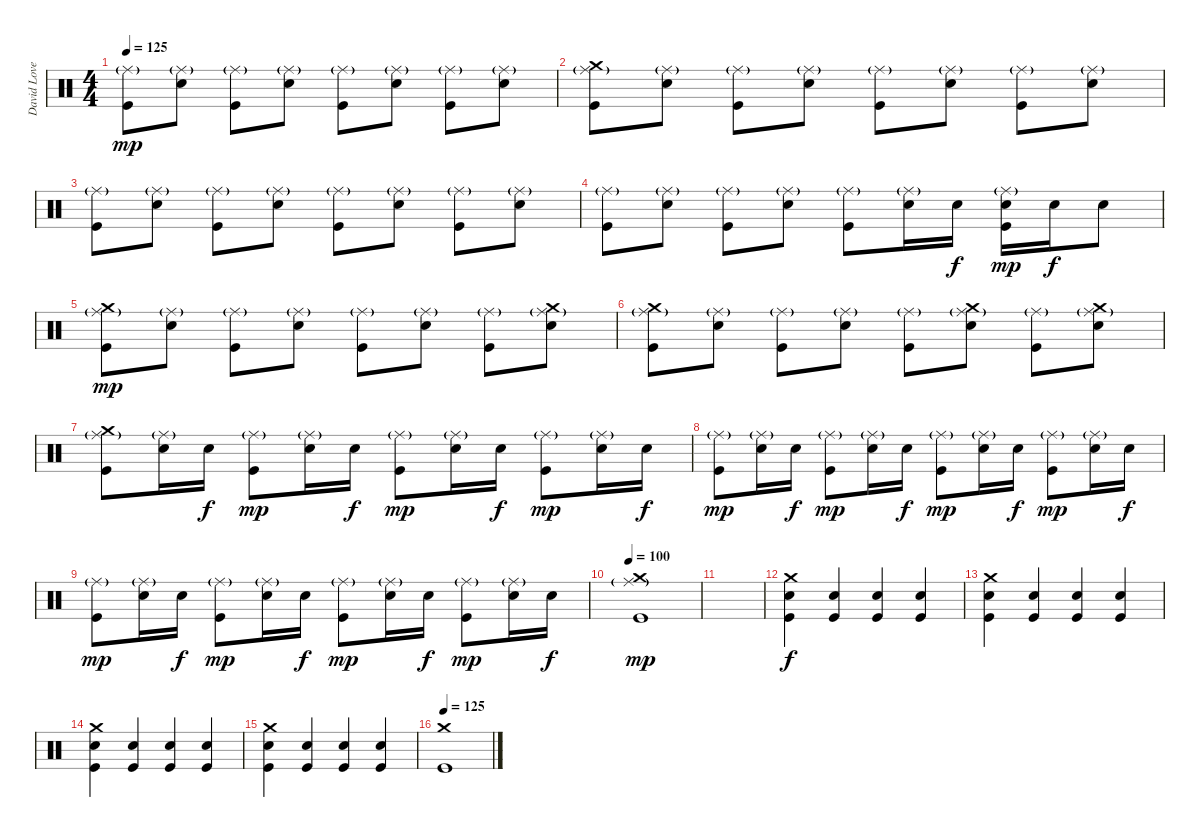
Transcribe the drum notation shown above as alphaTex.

\track ("David Lovering" "David Love") {instrument percussion}
\staff {score}
\articulation defaults
\ts (4 4)
\tempo 125
\clef neutral
\ks c
("Ride (middle)"{g} "Kick (hit)").8{dy mp} ("Ride (middle)"{g} "Snare (hit) 2").8 ("Ride (middle)"{g} "Kick (hit)").8 ("Ride (middle)"{g} "Snare (hit) 2").8 ("Ride (middle)"{g} "Kick (hit)").8 ("Ride (middle)"{g} "Snare (hit) 2").8 ("Ride (middle)"{g} "Kick (hit)").8 ("Ride (middle)"{g} "Snare (hit) 2").8 |
("Ride (middle)"{g} "Crash medium (hit)" "Kick (hit)").8 ("Ride (middle)"{g} "Snare (hit) 2").8 ("Ride (middle)"{g} "Kick (hit)").8 ("Ride (middle)"{g} "Snare (hit) 2").8 ("Ride (middle)"{g} "Kick (hit)").8 ("Ride (middle)"{g} "Snare (hit) 2").8 ("Ride (middle)"{g} "Kick (hit)").8 ("Ride (middle)"{g} "Snare (hit) 2").8 |
("Ride (middle)"{g} "Kick (hit)").8 ("Ride (middle)"{g} "Snare (hit) 2").8 ("Ride (middle)"{g} "Kick (hit)").8 ("Ride (middle)"{g} "Snare (hit) 2").8 ("Ride (middle)"{g} "Kick (hit)").8 ("Ride (middle)"{g} "Snare (hit) 2").8 ("Ride (middle)"{g} "Kick (hit)").8 ("Ride (middle)"{g} "Snare (hit) 2").8 |
("Ride (middle)"{g} "Kick (hit)").8 ("Ride (middle)"{g} "Snare (hit) 2").8 ("Ride (middle)"{g} "Kick (hit)").8 ("Ride (middle)"{g} "Snare (hit) 2").8 ("Ride (middle)"{g} "Kick (hit)").8 ("Ride (middle)"{g} "Snare (hit) 2").16 "Snare (hit) 2".16{dy f} ("Ride (middle)"{g} "Snare (hit) 2" "Kick (hit)").16{dy mp} "Snare (hit) 2".16{dy f} "Snare (hit) 2".8 |
("Ride (middle)"{g} "Crash medium (hit)" "Kick (hit)").8{dy mp} ("Ride (middle)"{g} "Snare (hit) 2").8 ("Ride (middle)"{g} "Kick (hit)").8 ("Ride (middle)"{g} "Snare (hit) 2").8 ("Ride (middle)"{g} "Kick (hit)").8 ("Ride (middle)"{g} "Snare (hit) 2").8 ("Ride (middle)"{g} "Kick (hit)").8 ("Ride (middle)"{g} "Crash medium (hit)" "Snare (hit) 2").8 |
("Ride (middle)"{g} "Crash medium (hit)" "Kick (hit)").8 ("Ride (middle)"{g} "Snare (hit) 2").8 ("Ride (middle)"{g} "Kick (hit)").8 ("Ride (middle)"{g} "Snare (hit) 2").8 ("Ride (middle)"{g} "Kick (hit)").8 ("Ride (middle)"{g} "Crash medium (hit)" "Snare (hit) 2").8 ("Ride (middle)"{g} "Kick (hit)").8 ("Ride (middle)"{g} "Crash medium (hit)" "Snare (hit) 2").8 |
\section ("" "")
("Ride (middle)"{g} "Crash medium (hit)" "Kick (hit)").8 ("Ride (middle)"{g} "Snare (hit) 2").16 "Snare (hit) 2".16{dy f} ("Ride (middle)"{g} "Kick (hit)").8{dy mp} ("Ride (middle)"{g} "Snare (hit) 2").16 "Snare (hit) 2".16{dy f} ("Ride (middle)"{g} "Kick (hit)").8{dy mp} ("Ride (middle)"{g} "Snare (hit) 2").16 "Snare (hit) 2".16{dy f} ("Ride (middle)"{g} "Kick (hit)").8{dy mp} ("Ride (middle)"{g} "Snare (hit) 2").16 "Snare (hit) 2".16{dy f} |
("Ride (middle)"{g} "Kick (hit)").8{dy mp} ("Ride (middle)"{g} "Snare (hit) 2").16 "Snare (hit) 2".16{dy f} ("Ride (middle)"{g} "Kick (hit)").8{dy mp} ("Ride (middle)"{g} "Snare (hit) 2").16 "Snare (hit) 2".16{dy f} ("Ride (middle)"{g} "Kick (hit)").8{dy mp} ("Ride (middle)"{g} "Snare (hit) 2").16 "Snare (hit) 2".16{dy f} ("Ride (middle)"{g} "Kick (hit)").8{dy mp} ("Ride (middle)"{g} "Snare (hit) 2").16 "Snare (hit) 2".16{dy f} |
("Ride (middle)"{g} "Kick (hit)").8{dy mp} ("Ride (middle)"{g} "Snare (hit) 2").16 "Snare (hit) 2".16{dy f} ("Ride (middle)"{g} "Kick (hit)").8{dy mp} ("Ride (middle)"{g} "Snare (hit) 2").16 "Snare (hit) 2".16{dy f} ("Ride (middle)"{g} "Kick (hit)").8{dy mp} ("Ride (middle)"{g} "Snare (hit) 2").16 "Snare (hit) 2".16{dy f} ("Ride (middle)"{g} "Kick (hit)").8{dy mp} ("Ride (middle)"{g} "Snare (hit) 2").16 "Snare (hit) 2".16{dy f} |
\tempo 100
("Ride (middle)"{g} "Crash medium (hit)" "Kick (hit)").1{dy mp} |
|
("Crash medium (hit)" "Snare (hit) 2" "Kick (hit)").4{dy f} ("Snare (hit) 2" "Kick (hit)").4 ("Snare (hit) 2" "Kick (hit)").4 ("Snare (hit) 2" "Kick (hit)").4 |
("Crash medium (hit)" "Snare (hit) 2" "Kick (hit)").4 ("Snare (hit) 2" "Kick (hit)").4 ("Snare (hit) 2" "Kick (hit)").4 ("Snare (hit) 2" "Kick (hit)").4 |
("Crash medium (hit)" "Snare (hit) 2" "Kick (hit)").4 ("Snare (hit) 2" "Kick (hit)").4 ("Snare (hit) 2" "Kick (hit)").4 ("Snare (hit) 2" "Kick (hit)").4 |
("Crash medium (hit)" "Snare (hit) 2" "Kick (hit)").4 ("Snare (hit) 2" "Kick (hit)").4 ("Snare (hit) 2" "Kick (hit)").4 ("Snare (hit) 2" "Kick (hit)").4 |
\tempo 125
("Crash medium (hit)" "Kick (hit)").1
